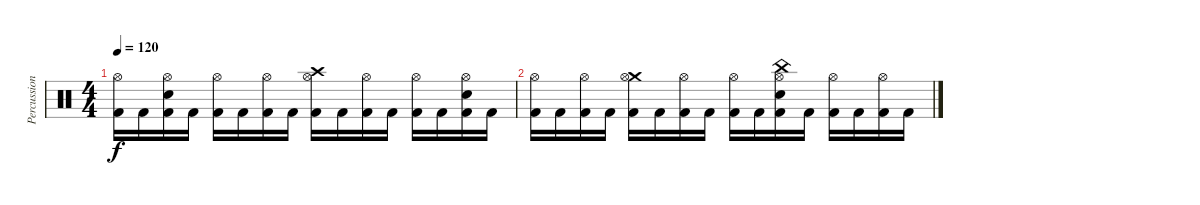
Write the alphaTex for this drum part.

\track ("Percussion" "Percussion") {instrument percussion}
\staff {score}
\articulation defaults
\ts (4 4)
\tempo 120
\clef neutral
\ks c
("Hi-Hat (open)" "Kick (hit) 2").16{dy f} "Kick (hit) 2".16 ("Hi-Hat (open)" "Snare (hit) 2" "Kick (hit) 2").16 "Kick (hit) 2".16 ("Hi-Hat (open)" "Kick (hit) 2").16 "Kick (hit) 2".16 ("Hi-Hat (open)" "Kick (hit) 2").16 "Kick (hit) 2".16 ("Crash high (hit)" "Hi-Hat (open)" "Kick (hit) 2").16 "Kick (hit) 2".16 ("Hi-Hat (open)" "Kick (hit) 2").16 "Kick (hit) 2".16 ("Hi-Hat (open)" "Kick (hit) 2").16 "Kick (hit) 2".16 ("Hi-Hat (open)" "Snare (hit) 2" "Kick (hit) 2").16 "Kick (hit) 2".16 |
("Hi-Hat (open)" "Kick (hit) 2").16 "Kick (hit) 2".16 ("Hi-Hat (open)" "Kick (hit) 2").16 "Kick (hit) 2".16 ("Crash medium (hit)" "Hi-Hat (open)" "Kick (hit) 2").16 "Kick (hit) 2".16 ("Hi-Hat (open)" "Kick (hit) 2").16 "Kick (hit) 2".16 ("Hi-Hat (open)" "Kick (hit) 2").16 "Kick (hit) 2".16 ("China (hit)" "Hi-Hat (open)" "Snare (hit) 2" "Kick (hit) 2").16 "Kick (hit) 2".16 ("Hi-Hat (open)" "Kick (hit) 2").16 "Kick (hit) 2".16 ("Hi-Hat (open)" "Kick (hit) 2").16 "Kick (hit) 2".16
